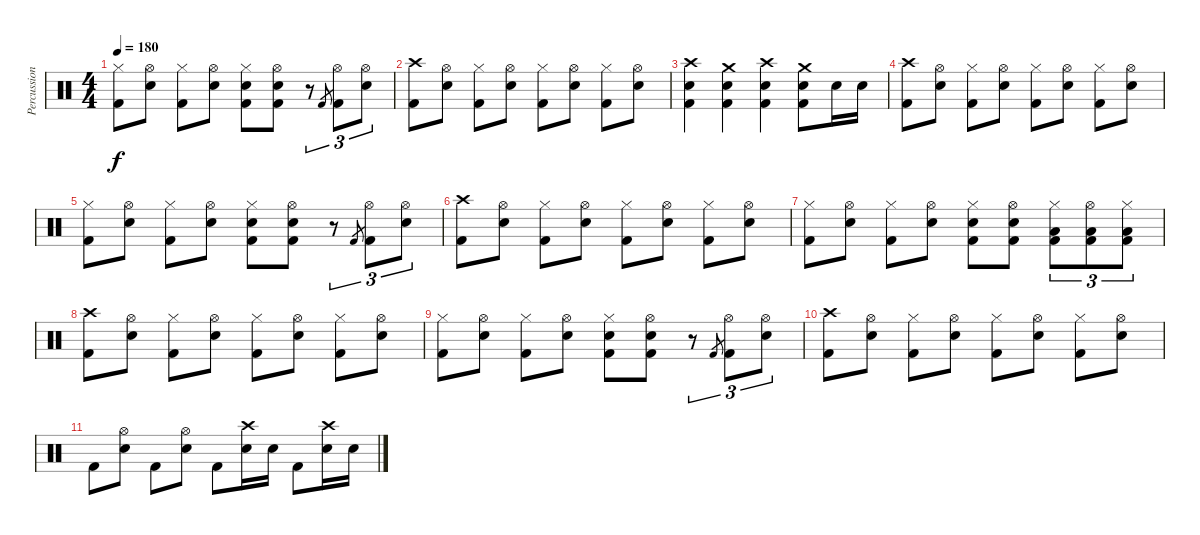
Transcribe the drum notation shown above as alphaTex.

\track ("Percussions" "Percussion") {instrument percussion}
\staff {score}
\articulation defaults
\ts (4 4)
\tempo 180
\clef neutral
\ks c
("Hi-Hat (closed)" "Kick (hit) 2").8{dy f} ("Hi-Hat (open)" "Snare (hit) 2").8 ("Hi-Hat (closed)" "Kick (hit) 2").8 ("Hi-Hat (open)" "Snare (hit) 2").8 ("Hi-Hat (closed)" "Snare (hit) 2" "Kick (hit) 2").8 ("Hi-Hat (open)" "Snare (hit) 2" "Kick (hit) 2").8 r.8{tu (3 2)} "Kick (hit) 2".8{gr} ("Hi-Hat (open)" "Kick (hit) 2").8{tu (3 2)} ("Hi-Hat (open)" "Snare (hit) 2").8{tu (3 2)} |
("Crash high (hit)" "Kick (hit) 2").8 ("Hi-Hat (open)" "Snare (hit) 2").8 ("Hi-Hat (closed)" "Kick (hit) 2").8 ("Hi-Hat (open)" "Snare (hit) 2").8 ("Hi-Hat (closed)" "Kick (hit) 2").8 ("Hi-Hat (open)" "Snare (hit) 2").8 ("Hi-Hat (closed)" "Kick (hit) 2").8 ("Hi-Hat (open)" "Snare (hit) 2").8 |
("Crash high (hit)" "Snare (hit) 2" "Kick (hit) 2").4 ("Crash medium (hit)" "Snare (hit) 2" "Kick (hit) 2").4 ("Crash high (hit)" "Snare (hit) 2" "Kick (hit) 2").4 ("Crash medium (hit)" "Snare (hit) 2" "Kick (hit) 2").8 "Snare (hit) 2".16 "Snare (hit) 2".16 |
("Crash high (hit)" "Kick (hit) 2").8 ("Hi-Hat (open)" "Snare (hit) 2").8 ("Hi-Hat (closed)" "Kick (hit) 2").8 ("Hi-Hat (open)" "Snare (hit) 2").8 ("Hi-Hat (closed)" "Kick (hit) 2").8 ("Hi-Hat (open)" "Snare (hit) 2").8 ("Hi-Hat (closed)" "Kick (hit) 2").8 ("Hi-Hat (open)" "Snare (hit) 2").8 |
("Hi-Hat (closed)" "Kick (hit) 2").8 ("Hi-Hat (open)" "Snare (hit) 2").8 ("Hi-Hat (closed)" "Kick (hit) 2").8 ("Hi-Hat (open)" "Snare (hit) 2").8 ("Hi-Hat (closed)" "Snare (hit) 2" "Kick (hit) 2").8 ("Hi-Hat (open)" "Snare (hit) 2" "Kick (hit) 2").8 r.8{tu (3 2)} "Kick (hit) 2".8{gr} ("Hi-Hat (open)" "Kick (hit) 2").8{tu (3 2)} ("Hi-Hat (open)" "Snare (hit) 2").8{tu (3 2)} |
("Crash high (hit)" "Kick (hit) 2").8 ("Hi-Hat (open)" "Snare (hit) 2").8 ("Hi-Hat (closed)" "Kick (hit) 2").8 ("Hi-Hat (open)" "Snare (hit) 2").8 ("Hi-Hat (closed)" "Kick (hit) 2").8 ("Hi-Hat (open)" "Snare (hit) 2").8 ("Hi-Hat (closed)" "Kick (hit) 2").8 ("Hi-Hat (open)" "Snare (hit) 2").8 |
("Hi-Hat (closed)" "Kick (hit) 2").8 ("Hi-Hat (open)" "Snare (hit) 2").8 ("Hi-Hat (closed)" "Kick (hit) 2").8 ("Hi-Hat (open)" "Snare (hit) 2").8 ("Hi-Hat (closed)" "Snare (hit) 2" "Kick (hit) 2").8 ("Hi-Hat (open)" "Snare (hit) 2" "Kick (hit) 2").8 ("Hi-Hat (closed)" "Low Tom (hit)" "Kick (hit) 2").8{tu (3 2)} ("Hi-Hat (open)" "Low Tom (hit)" "Kick (hit) 2").8{tu (3 2)} ("Hi-Hat (closed)" "Low Floor Tom (hit)" "Kick (hit) 2").8{tu (3 2)} |
("Crash high (hit)" "Kick (hit) 2").8 ("Hi-Hat (open)" "Snare (hit) 2").8 ("Hi-Hat (closed)" "Kick (hit) 2").8 ("Hi-Hat (open)" "Snare (hit) 2").8 ("Hi-Hat (closed)" "Kick (hit) 2").8 ("Hi-Hat (open)" "Snare (hit) 2").8 ("Hi-Hat (closed)" "Kick (hit) 2").8 ("Hi-Hat (open)" "Snare (hit) 2").8 |
("Hi-Hat (closed)" "Kick (hit) 2").8 ("Hi-Hat (open)" "Snare (hit) 2").8 ("Hi-Hat (closed)" "Kick (hit) 2").8 ("Hi-Hat (open)" "Snare (hit) 2").8 ("Hi-Hat (closed)" "Snare (hit) 2" "Kick (hit) 2").8 ("Hi-Hat (open)" "Snare (hit) 2" "Kick (hit) 2").8 r.8{tu (3 2)} "Kick (hit) 2".8{gr} ("Hi-Hat (open)" "Kick (hit) 2").8{tu (3 2)} ("Hi-Hat (open)" "Snare (hit) 2").8{tu (3 2)} |
("Crash high (hit)" "Kick (hit) 2").8 ("Hi-Hat (open)" "Snare (hit) 2").8 ("Hi-Hat (closed)" "Kick (hit) 2").8 ("Hi-Hat (open)" "Snare (hit) 2").8 ("Hi-Hat (closed)" "Kick (hit) 2").8 ("Hi-Hat (open)" "Snare (hit) 2").8 ("Hi-Hat (closed)" "Kick (hit) 2").8 ("Hi-Hat (open)" "Snare (hit) 2").8 |
"Kick (hit) 2".8 ("Hi-Hat (open)" "Snare (hit) 2").8 "Kick (hit) 2".8 ("Hi-Hat (open)" "Snare (hit) 2").8 "Kick (hit) 2".8 ("Crash high (hit)" "Snare (hit) 2").16 "Snare (hit) 2".16 "Kick (hit) 2".8 ("Crash high (hit)" "Snare (hit) 2").16 "Snare (hit) 2".16
